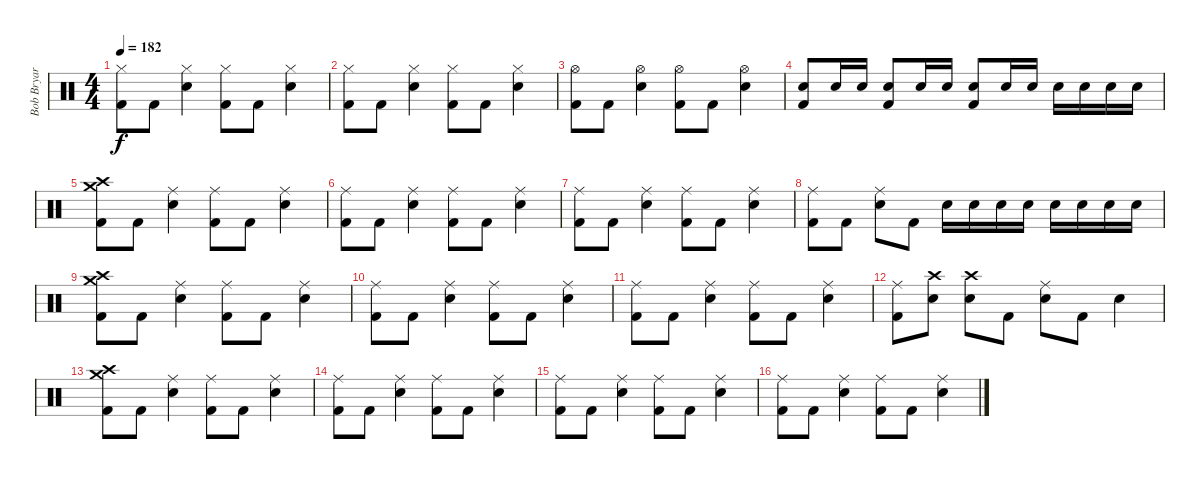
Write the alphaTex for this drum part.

\track ("Bob Bryar" "Bob Bryar") {instrument percussion}
\staff {score}
\articulation defaults
\ts (4 4)
\tempo 182
\clef neutral
\ks c
("Kick (hit) 2" "Hi-Hat (closed)").8{dy f} "Kick (hit) 2".8 ("Snare (hit) 2" "Hi-Hat (closed)").4 ("Kick (hit) 2" "Hi-Hat (closed)").8 "Kick (hit) 2".8 ("Snare (hit) 2" "Hi-Hat (closed)").4 |
("Kick (hit) 2" "Hi-Hat (closed)").8 "Kick (hit) 2".8 ("Snare (hit) 2" "Hi-Hat (closed)").4 ("Kick (hit) 2" "Hi-Hat (closed)").8 "Kick (hit) 2".8 ("Snare (hit) 2" "Hi-Hat (closed)").4 |
("Kick (hit) 2" "Hi-Hat (open)").8 "Kick (hit) 2".8 ("Snare (hit) 2" "Hi-Hat (open)").4 ("Kick (hit) 2" "Hi-Hat (open)").8 "Kick (hit) 2".8 ("Snare (hit) 2" "Hi-Hat (open)").4 |
("Snare (hit) 2" "Kick (hit) 2").8 "Snare (hit) 2".16 "Snare (hit) 2".16 ("Snare (hit) 2" "Kick (hit) 2").8 "Snare (hit) 2".16 "Snare (hit) 2".16 ("Snare (hit) 2" "Kick (hit) 2").8 "Snare (hit) 2".16 "Snare (hit) 2".16 "Snare (hit) 2".16 "Snare (hit) 2".16 "Snare (hit) 2".16 "Snare (hit) 2".16 |
("Kick (hit) 2" "Crash high (hit)" "Crash medium (hit)").8 "Kick (hit) 2".8 ("Snare (hit) 2" "Ride (middle)").4 ("Kick (hit) 2" "Ride (middle)").8 "Kick (hit) 2".8 ("Snare (hit) 2" "Ride (middle)").4 |
("Kick (hit) 2" "Ride (middle)").8 "Kick (hit) 2".8 ("Snare (hit) 2" "Ride (middle)").4 ("Kick (hit) 2" "Ride (middle)").8 "Kick (hit) 2".8 ("Snare (hit) 2" "Ride (middle)").4 |
("Kick (hit) 2" "Ride (middle)").8 "Kick (hit) 2".8 ("Snare (hit) 2" "Ride (middle)").4 ("Kick (hit) 2" "Ride (middle)").8 "Kick (hit) 2".8 ("Snare (hit) 2" "Ride (middle)").4 |
("Kick (hit) 2" "Ride (middle)").8 "Kick (hit) 2".8 ("Snare (hit) 2" "Ride (middle)").8 "Kick (hit) 2".8 "Snare (hit) 2".16 "Snare (hit) 2".16 "Snare (hit) 2".16 "Snare (hit) 2".16 "Snare (hit) 2".16 "Snare (hit) 2".16 "Snare (hit) 2".16 "Snare (hit) 2".16 |
("Kick (hit) 2" "Crash high (hit)" "Crash medium (hit)").8 "Kick (hit) 2".8 ("Snare (hit) 2" "Ride (middle)").4 ("Kick (hit) 2" "Ride (middle)").8 "Kick (hit) 2".8 ("Snare (hit) 2" "Ride (middle)").4 |
("Kick (hit) 2" "Ride (middle)").8 "Kick (hit) 2".8 ("Snare (hit) 2" "Ride (middle)").4 ("Kick (hit) 2" "Ride (middle)").8 "Kick (hit) 2".8 ("Snare (hit) 2" "Ride (middle)").4 |
("Kick (hit) 2" "Ride (middle)").8 "Kick (hit) 2".8 ("Snare (hit) 2" "Ride (middle)").4 ("Kick (hit) 2" "Ride (middle)").8 "Kick (hit) 2".8 ("Snare (hit) 2" "Ride (middle)").4 |
("Kick (hit) 2" "Ride (middle)").8 ("Snare (hit) 2" "Crash high (hit)").8 ("Snare (hit) 2" "Crash high (hit)").8 "Kick (hit) 2".8 ("Snare (hit) 2" "Ride (middle)").8 "Kick (hit) 2".8 "Snare (hit) 2".4 |
("Kick (hit) 2" "Crash high (hit)" "Crash medium (hit)").8 "Kick (hit) 2".8 ("Snare (hit) 2" "Ride (middle)").4 ("Kick (hit) 2" "Ride (middle)").8 "Kick (hit) 2".8 ("Snare (hit) 2" "Ride (middle)").4 |
("Kick (hit) 2" "Ride (middle)").8 "Kick (hit) 2".8 ("Snare (hit) 2" "Ride (middle)").4 ("Kick (hit) 2" "Ride (middle)").8 "Kick (hit) 2".8 ("Snare (hit) 2" "Ride (middle)").4 |
("Kick (hit) 2" "Ride (middle)").8 "Kick (hit) 2".8 ("Snare (hit) 2" "Ride (middle)").4 ("Kick (hit) 2" "Ride (middle)").8 "Kick (hit) 2".8 ("Snare (hit) 2" "Ride (middle)").4 |
("Kick (hit) 2" "Ride (middle)").8 "Kick (hit) 2".8 ("Snare (hit) 2" "Ride (middle)").4 ("Kick (hit) 2" "Ride (middle)").8 "Kick (hit) 2".8 ("Snare (hit) 2" "Ride (middle)").4
